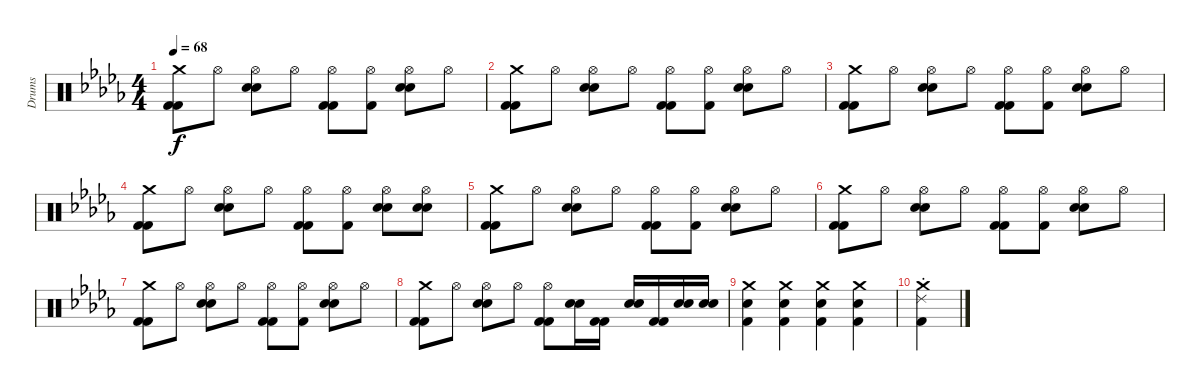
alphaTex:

\track ("Drums" "Drums") {instrument percussion}
\staff {score}
\articulation defaults
\ts (4 4)
\tempo 68
\clef neutral
\ks bbminor
("Crash medium (hit)" "Kick (hit) 2" "Kick (hit) 2").8{dy f} "Hi-Hat (open)".8 ("Hi-Hat (open)" "Snare (hit) 2" "Snare (hit) 2").8 "Hi-Hat (open)".8 ("Hi-Hat (open)" "Kick (hit) 2" "Kick (hit) 2").8 ("Hi-Hat (open)" "Kick (hit) 2").8 ("Hi-Hat (open)" "Snare (hit) 2" "Snare (hit) 2").8 "Hi-Hat (open)".8 |
("Crash medium (hit)" "Kick (hit) 2" "Kick (hit) 2").8 "Hi-Hat (open)".8 ("Hi-Hat (open)" "Snare (hit) 2" "Snare (hit) 2").8 "Hi-Hat (open)".8 ("Hi-Hat (open)" "Kick (hit) 2" "Kick (hit) 2").8 ("Hi-Hat (open)" "Kick (hit) 2").8 ("Hi-Hat (open)" "Snare (hit) 2" "Snare (hit) 2").8 "Hi-Hat (open)".8 |
("Crash medium (hit)" "Kick (hit) 2" "Kick (hit) 2").8 "Hi-Hat (open)".8 ("Hi-Hat (open)" "Snare (hit) 2" "Snare (hit) 2").8 "Hi-Hat (open)".8 ("Hi-Hat (open)" "Kick (hit) 2" "Kick (hit) 2").8 ("Hi-Hat (open)" "Kick (hit) 2").8 ("Hi-Hat (open)" "Snare (hit) 2" "Snare (hit) 2").8 "Hi-Hat (open)".8 |
("Crash medium (hit)" "Kick (hit) 2" "Kick (hit) 2").8 "Hi-Hat (open)".8 ("Hi-Hat (open)" "Snare (hit) 2" "Snare (hit) 2").8 "Hi-Hat (open)".8 ("Hi-Hat (open)" "Kick (hit) 2" "Kick (hit) 2").8 ("Hi-Hat (open)" "Kick (hit) 2").8 ("Hi-Hat (open)" "Snare (hit) 2" "Snare (hit) 2").8 ("Hi-Hat (open)" "Snare (hit) 2" "Snare (hit) 2").8 |
("Crash medium (hit)" "Kick (hit) 2" "Kick (hit) 2").8 "Hi-Hat (open)".8 ("Hi-Hat (open)" "Snare (hit) 2" "Snare (hit) 2").8 "Hi-Hat (open)".8 ("Hi-Hat (open)" "Kick (hit) 2" "Kick (hit) 2").8 ("Hi-Hat (open)" "Kick (hit) 2").8 ("Hi-Hat (open)" "Snare (hit) 2" "Snare (hit) 2").8 "Hi-Hat (open)".8 |
("Crash medium (hit)" "Kick (hit) 2" "Kick (hit) 2").8 "Hi-Hat (open)".8 ("Hi-Hat (open)" "Snare (hit) 2" "Snare (hit) 2").8 "Hi-Hat (open)".8 ("Hi-Hat (open)" "Kick (hit) 2" "Kick (hit) 2").8 ("Hi-Hat (open)" "Kick (hit) 2").8 ("Hi-Hat (open)" "Snare (hit) 2" "Snare (hit) 2").8 "Hi-Hat (open)".8 |
("Crash medium (hit)" "Kick (hit) 2" "Kick (hit) 2").8 "Hi-Hat (open)".8 ("Hi-Hat (open)" "Snare (hit) 2" "Snare (hit) 2").8 "Hi-Hat (open)".8 ("Hi-Hat (open)" "Kick (hit) 2" "Kick (hit) 2").8 ("Hi-Hat (open)" "Kick (hit) 2").8 ("Hi-Hat (open)" "Snare (hit) 2" "Snare (hit) 2").8 "Hi-Hat (open)".8 |
("Crash medium (hit)" "Kick (hit) 2" "Kick (hit) 2").8 "Hi-Hat (open)".8 ("Hi-Hat (open)" "Snare (hit) 2" "Snare (hit) 2").8 "Hi-Hat (open)".8 ("Hi-Hat (open)" "Kick (hit) 2" "Kick (hit) 2").8 ("Snare (hit) 2" "Snare (hit) 2").16 ("Kick (hit) 2" "Kick (hit) 2").16 ("Snare (hit) 2" "Snare (hit) 2").16 ("Kick (hit) 2" "Kick (hit) 2").16 ("Snare (hit) 2" "Snare (hit) 2").16 ("Snare (hit) 2" "Snare (hit) 2").16 |
("Crash medium (hit)" "Kick (hit) 2" "Snare (hit) 2").4 ("Crash medium (hit)" "Kick (hit) 2" "Snare (hit) 2").4 ("Crash medium (hit)" "Kick (hit) 2" "Snare (hit) 2").4 ("Crash medium (hit)" "Kick (hit) 2" "Snare (hit) 2").4 |
("Crash medium (hit)" "Kick (hit) 2" "Ride (choke) 2").4
